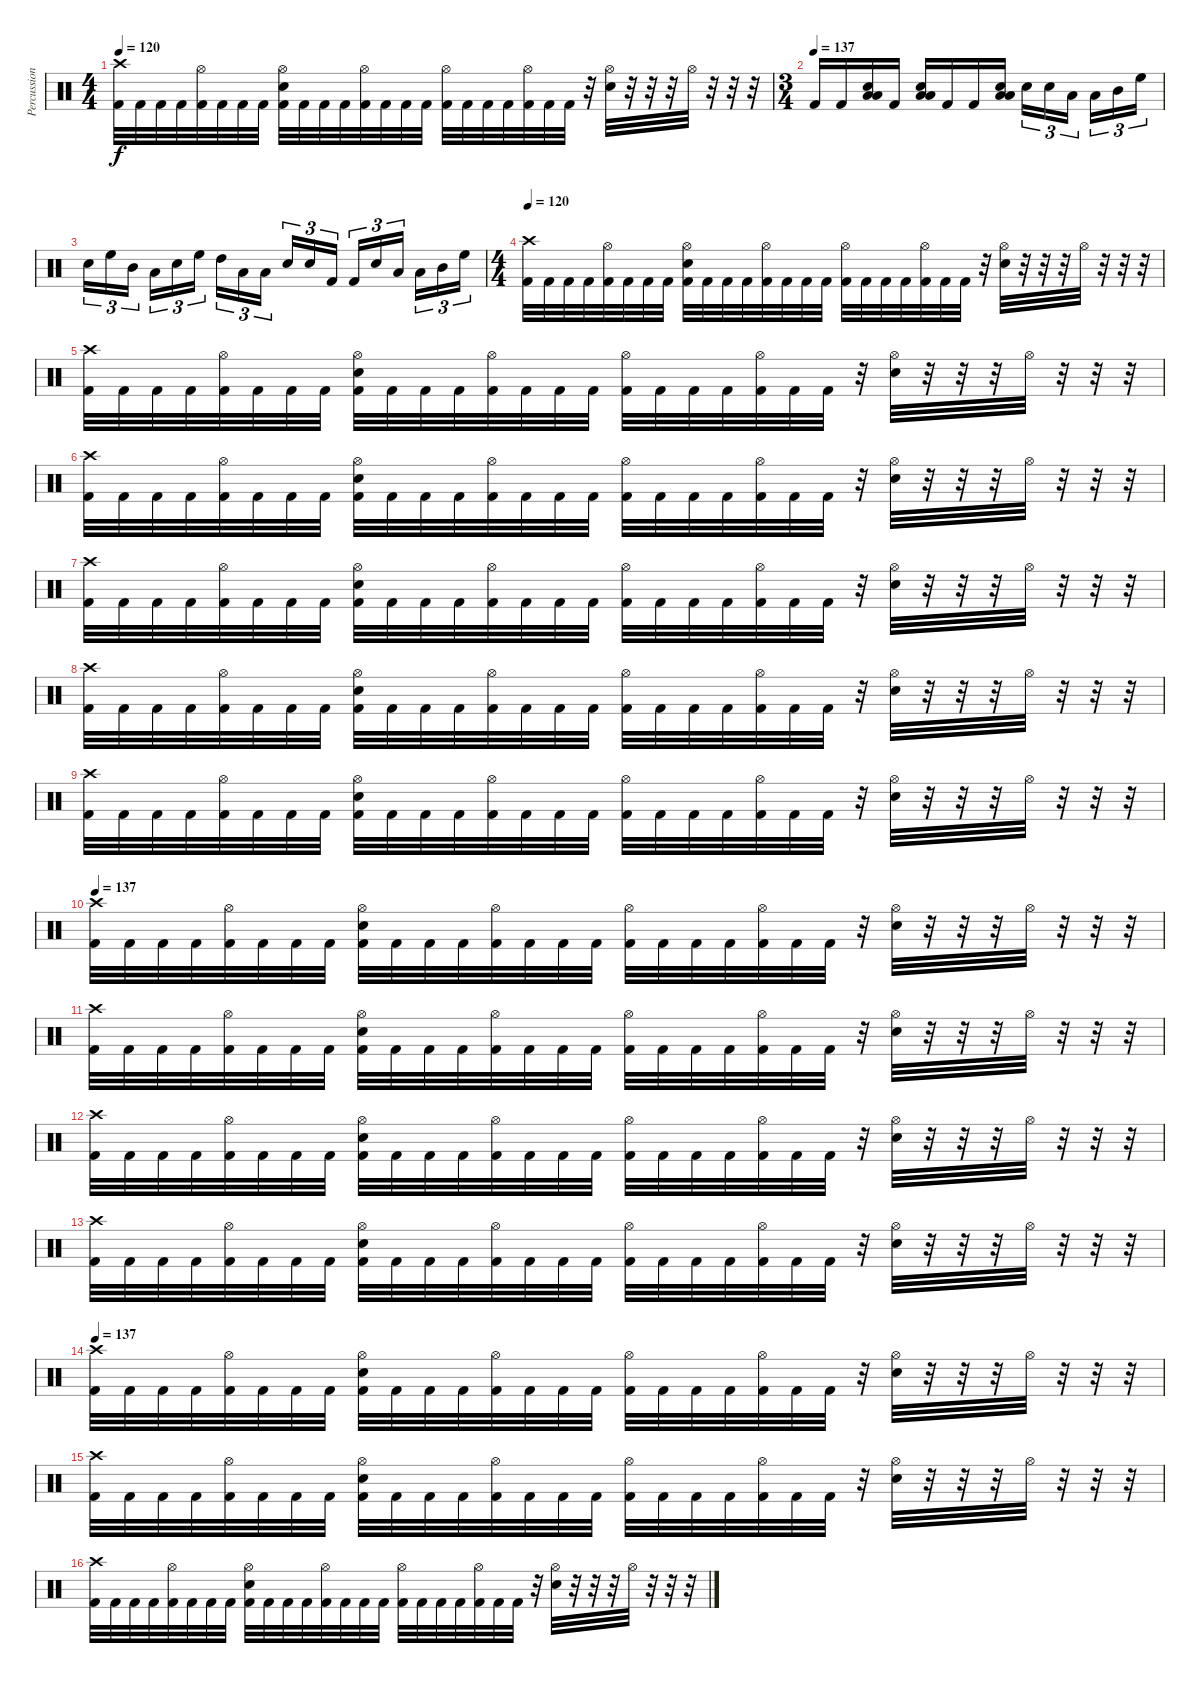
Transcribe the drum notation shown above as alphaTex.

\track ("Percussion" "Percussion") {instrument percussion}
\staff {score}
\articulation defaults
\ts (4 4)
\tempo 120
\clef neutral
\ks c
("Crash high (hit)" "Kick (hit) 2").32{dy f} "Kick (hit) 2".32 "Kick (hit) 2".32 "Kick (hit) 2".32 ("Hi-Hat (open)" "Kick (hit) 2").32 "Kick (hit) 2".32 "Kick (hit) 2".32 "Kick (hit) 2".32 ("Hi-Hat (open)" "Electric Snare (hit)" "Kick (hit) 2").32 "Kick (hit) 2".32 "Kick (hit) 2".32 "Kick (hit) 2".32 ("Hi-Hat (open)" "Kick (hit) 2").32 "Kick (hit) 2".32 "Kick (hit) 2".32 "Kick (hit) 2".32 ("Hi-Hat (open)" "Kick (hit) 2").32 "Kick (hit) 2".32 "Kick (hit) 2".32 "Kick (hit) 2".32 ("Hi-Hat (open)" "Kick (hit) 2").32 "Kick (hit) 2".32 "Kick (hit) 2".32 r.32 ("Hi-Hat (open)" "Electric Snare (hit)").32 r.32 r.32 r.32 "Hi-Hat (open)".32 r.32 r.32 r.32 |
\ts (3 4)
\tempo (137)
"Kick (hit) 2".16 "Kick (hit) 2".16 ("Electric Snare (hit)" "Low Tom (hit)" "Low Floor Tom (hit)").16 "Kick (hit) 2".16 ("Electric Snare (hit)" "Low Tom (hit)" "Low Floor Tom (hit)").16 "Kick (hit) 2".16 "Kick (hit) 2".16 ("Electric Snare (hit)" "Low Tom (hit)" "Low Floor Tom (hit)").16 "Electric Snare (hit)".16{tu (3 2)} "Electric Snare (hit)".16{tu (3 2)} "Low Floor Tom (hit)".16{tu (3 2)} "Low Tom (hit)".16{tu (3 2)} "Mid Tom (hit)".16{tu (3 2)} "High Floor Tom (hit)".16{tu (3 2)} |
"Electric Snare (hit)".16{tu (3 2)} "High Floor Tom (hit)".16{tu (3 2)} "Mid Tom (hit)".16{tu (3 2)} "Low Tom (hit)".16{tu (3 2)} "Electric Snare (hit)".16{tu (3 2)} "High Floor Tom (hit)".16{tu (3 2)} "High Tom (hit)".16{tu (3 2)} "Low Tom (hit)".16{tu (3 2)} "Low Floor Tom (hit)".16{tu (3 2)} "Electric Snare (hit)".16{tu (3 2)} "Electric Snare (hit)".16{tu (3 2)} "Kick (hit) 2".16{tu (3 2)} "Kick (hit) 2".16{tu (3 2)} "Electric Snare (hit)".16{tu (3 2)} "Low Floor Tom (hit)".16{tu (3 2)} "Low Tom (hit)".16{tu (3 2)} "Mid Tom (hit)".16{tu (3 2)} "High Floor Tom (hit)".16{tu (3 2)} |
\ts (4 4)
\tempo 120
("Crash high (hit)" "Kick (hit) 2").32 "Kick (hit) 2".32 "Kick (hit) 2".32 "Kick (hit) 2".32 ("Hi-Hat (open)" "Kick (hit) 2").32 "Kick (hit) 2".32 "Kick (hit) 2".32 "Kick (hit) 2".32 ("Hi-Hat (open)" "Electric Snare (hit)" "Kick (hit) 2").32 "Kick (hit) 2".32 "Kick (hit) 2".32 "Kick (hit) 2".32 ("Hi-Hat (open)" "Kick (hit) 2").32 "Kick (hit) 2".32 "Kick (hit) 2".32 "Kick (hit) 2".32 ("Hi-Hat (open)" "Kick (hit) 2").32 "Kick (hit) 2".32 "Kick (hit) 2".32 "Kick (hit) 2".32 ("Hi-Hat (open)" "Kick (hit) 2").32 "Kick (hit) 2".32 "Kick (hit) 2".32 r.32 ("Hi-Hat (open)" "Electric Snare (hit)").32 r.32 r.32 r.32 "Hi-Hat (open)".32 r.32 r.32 r.32 |
("Crash high (hit)" "Kick (hit) 2").32 "Kick (hit) 2".32 "Kick (hit) 2".32 "Kick (hit) 2".32 ("Hi-Hat (open)" "Kick (hit) 2").32 "Kick (hit) 2".32 "Kick (hit) 2".32 "Kick (hit) 2".32 ("Hi-Hat (open)" "Electric Snare (hit)" "Kick (hit) 2").32 "Kick (hit) 2".32 "Kick (hit) 2".32 "Kick (hit) 2".32 ("Hi-Hat (open)" "Kick (hit) 2").32 "Kick (hit) 2".32 "Kick (hit) 2".32 "Kick (hit) 2".32 ("Hi-Hat (open)" "Kick (hit) 2").32 "Kick (hit) 2".32 "Kick (hit) 2".32 "Kick (hit) 2".32 ("Hi-Hat (open)" "Kick (hit) 2").32 "Kick (hit) 2".32 "Kick (hit) 2".32 r.32 ("Hi-Hat (open)" "Electric Snare (hit)").32 r.32 r.32 r.32 "Hi-Hat (open)".32 r.32 r.32 r.32 |
("Crash high (hit)" "Kick (hit) 2").32 "Kick (hit) 2".32 "Kick (hit) 2".32 "Kick (hit) 2".32 ("Hi-Hat (open)" "Kick (hit) 2").32 "Kick (hit) 2".32 "Kick (hit) 2".32 "Kick (hit) 2".32 ("Hi-Hat (open)" "Electric Snare (hit)" "Kick (hit) 2").32 "Kick (hit) 2".32 "Kick (hit) 2".32 "Kick (hit) 2".32 ("Hi-Hat (open)" "Kick (hit) 2").32 "Kick (hit) 2".32 "Kick (hit) 2".32 "Kick (hit) 2".32 ("Hi-Hat (open)" "Kick (hit) 2").32 "Kick (hit) 2".32 "Kick (hit) 2".32 "Kick (hit) 2".32 ("Hi-Hat (open)" "Kick (hit) 2").32 "Kick (hit) 2".32 "Kick (hit) 2".32 r.32 ("Hi-Hat (open)" "Electric Snare (hit)").32 r.32 r.32 r.32 "Hi-Hat (open)".32 r.32 r.32 r.32 |
("Crash high (hit)" "Kick (hit) 2").32 "Kick (hit) 2".32 "Kick (hit) 2".32 "Kick (hit) 2".32 ("Hi-Hat (open)" "Kick (hit) 2").32 "Kick (hit) 2".32 "Kick (hit) 2".32 "Kick (hit) 2".32 ("Hi-Hat (open)" "Electric Snare (hit)" "Kick (hit) 2").32 "Kick (hit) 2".32 "Kick (hit) 2".32 "Kick (hit) 2".32 ("Hi-Hat (open)" "Kick (hit) 2").32 "Kick (hit) 2".32 "Kick (hit) 2".32 "Kick (hit) 2".32 ("Hi-Hat (open)" "Kick (hit) 2").32 "Kick (hit) 2".32 "Kick (hit) 2".32 "Kick (hit) 2".32 ("Hi-Hat (open)" "Kick (hit) 2").32 "Kick (hit) 2".32 "Kick (hit) 2".32 r.32 ("Hi-Hat (open)" "Electric Snare (hit)").32 r.32 r.32 r.32 "Hi-Hat (open)".32 r.32 r.32 r.32 |
("Crash high (hit)" "Kick (hit) 2").32 "Kick (hit) 2".32 "Kick (hit) 2".32 "Kick (hit) 2".32 ("Hi-Hat (open)" "Kick (hit) 2").32 "Kick (hit) 2".32 "Kick (hit) 2".32 "Kick (hit) 2".32 ("Hi-Hat (open)" "Electric Snare (hit)" "Kick (hit) 2").32 "Kick (hit) 2".32 "Kick (hit) 2".32 "Kick (hit) 2".32 ("Hi-Hat (open)" "Kick (hit) 2").32 "Kick (hit) 2".32 "Kick (hit) 2".32 "Kick (hit) 2".32 ("Hi-Hat (open)" "Kick (hit) 2").32 "Kick (hit) 2".32 "Kick (hit) 2".32 "Kick (hit) 2".32 ("Hi-Hat (open)" "Kick (hit) 2").32 "Kick (hit) 2".32 "Kick (hit) 2".32 r.32 ("Hi-Hat (open)" "Electric Snare (hit)").32 r.32 r.32 r.32 "Hi-Hat (open)".32 r.32 r.32 r.32 |
("Crash high (hit)" "Kick (hit) 2").32 "Kick (hit) 2".32 "Kick (hit) 2".32 "Kick (hit) 2".32 ("Hi-Hat (open)" "Kick (hit) 2").32 "Kick (hit) 2".32 "Kick (hit) 2".32 "Kick (hit) 2".32 ("Hi-Hat (open)" "Electric Snare (hit)" "Kick (hit) 2").32 "Kick (hit) 2".32 "Kick (hit) 2".32 "Kick (hit) 2".32 ("Hi-Hat (open)" "Kick (hit) 2").32 "Kick (hit) 2".32 "Kick (hit) 2".32 "Kick (hit) 2".32 ("Hi-Hat (open)" "Kick (hit) 2").32 "Kick (hit) 2".32 "Kick (hit) 2".32 "Kick (hit) 2".32 ("Hi-Hat (open)" "Kick (hit) 2").32 "Kick (hit) 2".32 "Kick (hit) 2".32 r.32 ("Hi-Hat (open)" "Electric Snare (hit)").32 r.32 r.32 r.32 "Hi-Hat (open)".32 r.32 r.32 r.32 |
\tempo 137
("Crash high (hit)" "Kick (hit) 2").32 "Kick (hit) 2".32 "Kick (hit) 2".32 "Kick (hit) 2".32 ("Hi-Hat (open)" "Kick (hit) 2").32 "Kick (hit) 2".32 "Kick (hit) 2".32 "Kick (hit) 2".32 ("Hi-Hat (open)" "Electric Snare (hit)" "Kick (hit) 2").32 "Kick (hit) 2".32 "Kick (hit) 2".32 "Kick (hit) 2".32 ("Hi-Hat (open)" "Kick (hit) 2").32 "Kick (hit) 2".32 "Kick (hit) 2".32 "Kick (hit) 2".32 ("Hi-Hat (open)" "Kick (hit) 2").32 "Kick (hit) 2".32 "Kick (hit) 2".32 "Kick (hit) 2".32 ("Hi-Hat (open)" "Kick (hit) 2").32 "Kick (hit) 2".32 "Kick (hit) 2".32 r.32 ("Hi-Hat (open)" "Electric Snare (hit)").32 r.32 r.32 r.32 "Hi-Hat (open)".32 r.32 r.32 r.32 |
("Crash high (hit)" "Kick (hit) 2").32 "Kick (hit) 2".32 "Kick (hit) 2".32 "Kick (hit) 2".32 ("Hi-Hat (open)" "Kick (hit) 2").32 "Kick (hit) 2".32 "Kick (hit) 2".32 "Kick (hit) 2".32 ("Hi-Hat (open)" "Electric Snare (hit)" "Kick (hit) 2").32 "Kick (hit) 2".32 "Kick (hit) 2".32 "Kick (hit) 2".32 ("Hi-Hat (open)" "Kick (hit) 2").32 "Kick (hit) 2".32 "Kick (hit) 2".32 "Kick (hit) 2".32 ("Hi-Hat (open)" "Kick (hit) 2").32 "Kick (hit) 2".32 "Kick (hit) 2".32 "Kick (hit) 2".32 ("Hi-Hat (open)" "Kick (hit) 2").32 "Kick (hit) 2".32 "Kick (hit) 2".32 r.32 ("Hi-Hat (open)" "Electric Snare (hit)").32 r.32 r.32 r.32 "Hi-Hat (open)".32 r.32 r.32 r.32 |
("Crash high (hit)" "Kick (hit) 2").32 "Kick (hit) 2".32 "Kick (hit) 2".32 "Kick (hit) 2".32 ("Hi-Hat (open)" "Kick (hit) 2").32 "Kick (hit) 2".32 "Kick (hit) 2".32 "Kick (hit) 2".32 ("Hi-Hat (open)" "Electric Snare (hit)" "Kick (hit) 2").32 "Kick (hit) 2".32 "Kick (hit) 2".32 "Kick (hit) 2".32 ("Hi-Hat (open)" "Kick (hit) 2").32 "Kick (hit) 2".32 "Kick (hit) 2".32 "Kick (hit) 2".32 ("Hi-Hat (open)" "Kick (hit) 2").32 "Kick (hit) 2".32 "Kick (hit) 2".32 "Kick (hit) 2".32 ("Hi-Hat (open)" "Kick (hit) 2").32 "Kick (hit) 2".32 "Kick (hit) 2".32 r.32 ("Hi-Hat (open)" "Electric Snare (hit)").32 r.32 r.32 r.32 "Hi-Hat (open)".32 r.32 r.32 r.32 |
("Crash high (hit)" "Kick (hit) 2").32 "Kick (hit) 2".32 "Kick (hit) 2".32 "Kick (hit) 2".32 ("Hi-Hat (open)" "Kick (hit) 2").32 "Kick (hit) 2".32 "Kick (hit) 2".32 "Kick (hit) 2".32 ("Hi-Hat (open)" "Electric Snare (hit)" "Kick (hit) 2").32 "Kick (hit) 2".32 "Kick (hit) 2".32 "Kick (hit) 2".32 ("Hi-Hat (open)" "Kick (hit) 2").32 "Kick (hit) 2".32 "Kick (hit) 2".32 "Kick (hit) 2".32 ("Hi-Hat (open)" "Kick (hit) 2").32 "Kick (hit) 2".32 "Kick (hit) 2".32 "Kick (hit) 2".32 ("Hi-Hat (open)" "Kick (hit) 2").32 "Kick (hit) 2".32 "Kick (hit) 2".32 r.32 ("Hi-Hat (open)" "Electric Snare (hit)").32 r.32 r.32 r.32 "Hi-Hat (open)".32 r.32 r.32 r.32 |
\tempo 137
("Crash high (hit)" "Kick (hit) 2").32 "Kick (hit) 2".32 "Kick (hit) 2".32 "Kick (hit) 2".32 ("Hi-Hat (open)" "Kick (hit) 2").32 "Kick (hit) 2".32 "Kick (hit) 2".32 "Kick (hit) 2".32 ("Hi-Hat (open)" "Electric Snare (hit)" "Kick (hit) 2").32 "Kick (hit) 2".32 "Kick (hit) 2".32 "Kick (hit) 2".32 ("Hi-Hat (open)" "Kick (hit) 2").32 "Kick (hit) 2".32 "Kick (hit) 2".32 "Kick (hit) 2".32 ("Hi-Hat (open)" "Kick (hit) 2").32 "Kick (hit) 2".32 "Kick (hit) 2".32 "Kick (hit) 2".32 ("Hi-Hat (open)" "Kick (hit) 2").32 "Kick (hit) 2".32 "Kick (hit) 2".32 r.32 ("Hi-Hat (open)" "Electric Snare (hit)").32 r.32 r.32 r.32 "Hi-Hat (open)".32 r.32 r.32 r.32 |
("Crash high (hit)" "Kick (hit) 2").32 "Kick (hit) 2".32 "Kick (hit) 2".32 "Kick (hit) 2".32 ("Hi-Hat (open)" "Kick (hit) 2").32 "Kick (hit) 2".32 "Kick (hit) 2".32 "Kick (hit) 2".32 ("Hi-Hat (open)" "Electric Snare (hit)" "Kick (hit) 2").32 "Kick (hit) 2".32 "Kick (hit) 2".32 "Kick (hit) 2".32 ("Hi-Hat (open)" "Kick (hit) 2").32 "Kick (hit) 2".32 "Kick (hit) 2".32 "Kick (hit) 2".32 ("Hi-Hat (open)" "Kick (hit) 2").32 "Kick (hit) 2".32 "Kick (hit) 2".32 "Kick (hit) 2".32 ("Hi-Hat (open)" "Kick (hit) 2").32 "Kick (hit) 2".32 "Kick (hit) 2".32 r.32 ("Hi-Hat (open)" "Electric Snare (hit)").32 r.32 r.32 r.32 "Hi-Hat (open)".32 r.32 r.32 r.32 |
("Crash high (hit)" "Kick (hit) 2").32 "Kick (hit) 2".32 "Kick (hit) 2".32 "Kick (hit) 2".32 ("Hi-Hat (open)" "Kick (hit) 2").32 "Kick (hit) 2".32 "Kick (hit) 2".32 "Kick (hit) 2".32 ("Hi-Hat (open)" "Electric Snare (hit)" "Kick (hit) 2").32 "Kick (hit) 2".32 "Kick (hit) 2".32 "Kick (hit) 2".32 ("Hi-Hat (open)" "Kick (hit) 2").32 "Kick (hit) 2".32 "Kick (hit) 2".32 "Kick (hit) 2".32 ("Hi-Hat (open)" "Kick (hit) 2").32 "Kick (hit) 2".32 "Kick (hit) 2".32 "Kick (hit) 2".32 ("Hi-Hat (open)" "Kick (hit) 2").32 "Kick (hit) 2".32 "Kick (hit) 2".32 r.32 ("Hi-Hat (open)" "Electric Snare (hit)").32 r.32 r.32 r.32 "Hi-Hat (open)".32 r.32 r.32 r.32
